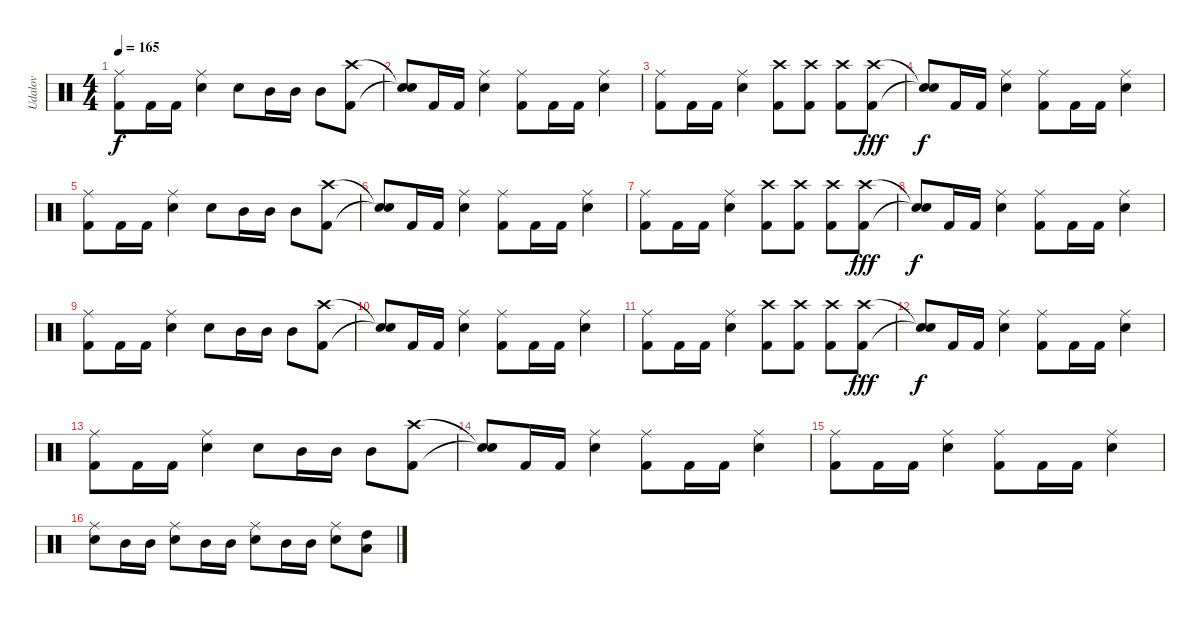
\track ("Udalov" "Udalov") {instrument percussion}
\staff {score}
\articulation defaults
\ts (4 4)
\tempo 165
\clef neutral
\ks c
("Kick (hit) 2" "Ride (middle)").8{dy f} "Kick (hit) 2".16 "Kick (hit) 2".16 ("Snare (hit) 2" "Ride (middle)").4 "Snare (hit) 2".8 "Mid Tom (hit)".16 "Mid Tom (hit)".16 "Mid Tom (hit)".8 ("Kick (hit) 2" "Crash high (hit)").8 |
("Snare (hit)"{t} "Snare (hit)"{t}).8 "Kick (hit) 2".16 "Kick (hit) 2".16 ("Snare (hit) 2" "Ride (middle)").4 ("Kick (hit) 2" "Ride (middle)").8 "Kick (hit) 2".16 "Kick (hit) 2".16 ("Snare (hit) 2" "Ride (middle)").4 |
("Kick (hit) 2" "Ride (middle)").8 "Kick (hit) 2".16 "Kick (hit) 2".16 ("Snare (hit) 2" "Ride (middle)").4 ("Kick (hit) 2" "Crash high (hit)").8 ("Kick (hit) 2" "Crash high (hit)").8 ("Kick (hit) 2" "Crash high (hit)").8 ("Kick (hit) 2" "Crash high (hit)").8{dy fff} |
("Snare (hit)"{t} "Snare (hit)"{t}).8{dy f} "Kick (hit) 2".16 "Kick (hit) 2".16 ("Snare (hit) 2" "Ride (middle)").4 ("Kick (hit) 2" "Ride (middle)").8 "Kick (hit) 2".16 "Kick (hit) 2".16 ("Snare (hit) 2" "Ride (middle)").4 |
("Kick (hit) 2" "Ride (middle)").8 "Kick (hit) 2".16 "Kick (hit) 2".16 ("Snare (hit) 2" "Ride (middle)").4 "Snare (hit) 2".8 "Mid Tom (hit)".16 "Mid Tom (hit)".16 "Mid Tom (hit)".8 ("Kick (hit) 2" "Crash high (hit)").8 |
("Snare (hit)"{t} "Snare (hit)"{t}).8 "Kick (hit) 2".16 "Kick (hit) 2".16 ("Snare (hit) 2" "Ride (middle)").4 ("Kick (hit) 2" "Ride (middle)").8 "Kick (hit) 2".16 "Kick (hit) 2".16 ("Snare (hit) 2" "Ride (middle)").4 |
("Kick (hit) 2" "Ride (middle)").8 "Kick (hit) 2".16 "Kick (hit) 2".16 ("Snare (hit) 2" "Ride (middle)").4 ("Kick (hit) 2" "Crash high (hit)").8 ("Kick (hit) 2" "Crash high (hit)").8 ("Kick (hit) 2" "Crash high (hit)").8 ("Kick (hit) 2" "Crash high (hit)").8{dy fff} |
("Snare (hit)"{t} "Snare (hit)"{t}).8{dy f} "Kick (hit) 2".16 "Kick (hit) 2".16 ("Snare (hit) 2" "Ride (middle)").4 ("Kick (hit) 2" "Ride (middle)").8 "Kick (hit) 2".16 "Kick (hit) 2".16 ("Snare (hit) 2" "Ride (middle)").4 |
("Kick (hit) 2" "Ride (middle)").8 "Kick (hit) 2".16 "Kick (hit) 2".16 ("Snare (hit) 2" "Ride (middle)").4 "Snare (hit) 2".8 "Mid Tom (hit)".16 "Mid Tom (hit)".16 "Mid Tom (hit)".8 ("Kick (hit) 2" "Crash high (hit)").8 |
("Snare (hit)"{t} "Snare (hit)"{t}).8 "Kick (hit) 2".16 "Kick (hit) 2".16 ("Snare (hit) 2" "Ride (middle)").4 ("Kick (hit) 2" "Ride (middle)").8 "Kick (hit) 2".16 "Kick (hit) 2".16 ("Snare (hit) 2" "Ride (middle)").4 |
("Kick (hit) 2" "Ride (middle)").8 "Kick (hit) 2".16 "Kick (hit) 2".16 ("Snare (hit) 2" "Ride (middle)").4 ("Kick (hit) 2" "Crash high (hit)").8 ("Kick (hit) 2" "Crash high (hit)").8 ("Kick (hit) 2" "Crash high (hit)").8 ("Kick (hit) 2" "Crash high (hit)").8{dy fff} |
("Snare (hit)"{t} "Snare (hit)"{t}).8{dy f} "Kick (hit) 2".16 "Kick (hit) 2".16 ("Snare (hit) 2" "Ride (middle)").4 ("Kick (hit) 2" "Ride (middle)").8 "Kick (hit) 2".16 "Kick (hit) 2".16 ("Snare (hit) 2" "Ride (middle)").4 |
("Kick (hit) 2" "Ride (middle)").8 "Kick (hit) 2".16 "Kick (hit) 2".16 ("Snare (hit) 2" "Ride (middle)").4 "Snare (hit) 2".8 "Mid Tom (hit)".16 "Mid Tom (hit)".16 "Mid Tom (hit)".8 ("Kick (hit) 2" "Crash high (hit)").8 |
("Snare (hit)"{t} "Snare (hit)"{t}).8 "Kick (hit) 2".16 "Kick (hit) 2".16 ("Snare (hit) 2" "Ride (middle)").4 ("Kick (hit) 2" "Ride (middle)").8 "Kick (hit) 2".16 "Kick (hit) 2".16 ("Snare (hit) 2" "Ride (middle)").4 |
("Kick (hit) 2" "Ride (middle)").8 "Kick (hit) 2".16 "Kick (hit) 2".16 ("Snare (hit) 2" "Ride (middle)").4 ("Kick (hit) 2" "Ride (middle)").8 "Kick (hit) 2".16 "Kick (hit) 2".16 ("Snare (hit) 2" "Ride (middle)").4 |
("Snare (hit) 2" "Ride (middle)").8 "Mid Tom (hit)".16 "Mid Tom (hit)".16 ("Snare (hit) 2" "Ride (middle)").8 "Mid Tom (hit)".16 "Mid Tom (hit)".16 ("Snare (hit) 2" "Ride (middle)").8 "Mid Tom (hit)".16 "Mid Tom (hit)".16 ("Snare (hit) 2" "Ride (middle)").8 ("High Tom (hit)" "Low Tom (hit)").8
